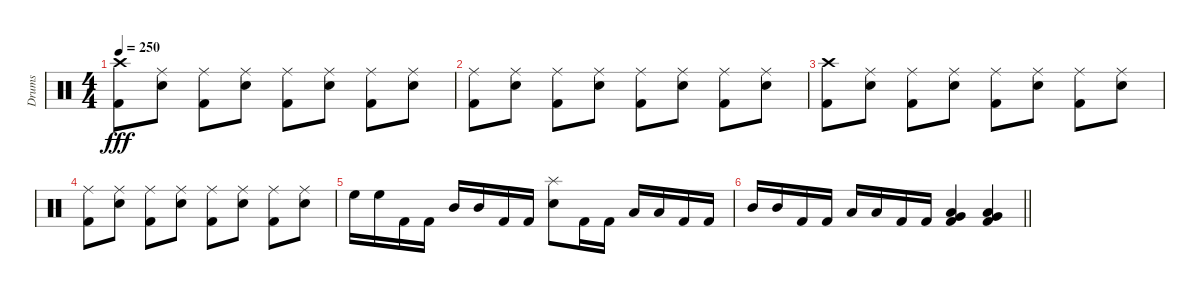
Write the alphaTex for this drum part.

\track ("Drums" "Drums") {solo instrument percussion}
\staff {score}
\articulation defaults
\ts (4 4)
\tempo 250
\clef neutral
\ks c
("Crash high (hit)" "Kick (hit) 2").8{dy fff} ("Ride (middle)" "Snare (hit) 2").8 ("Ride (middle)" "Kick (hit) 2").8 ("Ride (middle)" "Snare (hit) 2").8 ("Ride (middle)" "Kick (hit) 2").8 ("Ride (middle)" "Snare (hit) 2").8 ("Ride (middle)" "Kick (hit) 2").8 ("Ride (middle)" "Snare (hit) 2").8 |
("Ride (middle)" "Kick (hit) 2").8 ("Ride (middle)" "Snare (hit) 2").8 ("Ride (middle)" "Kick (hit) 2").8 ("Ride (middle)" "Snare (hit) 2").8 ("Ride (middle)" "Kick (hit) 2").8 ("Ride (middle)" "Snare (hit) 2").8 ("Ride (middle)" "Kick (hit) 2").8 ("Ride (middle)" "Snare (hit) 2").8 |
("Crash high (hit)" "Kick (hit) 2").8 ("Ride (middle)" "Snare (hit) 2").8 ("Ride (middle)" "Kick (hit) 2").8 ("Ride (middle)" "Snare (hit) 2").8 ("Ride (middle)" "Kick (hit) 2").8 ("Ride (middle)" "Snare (hit) 2").8 ("Ride (middle)" "Kick (hit) 2").8 ("Ride (middle)" "Snare (hit) 2").8 |
("Ride (middle)" "Kick (hit) 2").8 ("Ride (middle)" "Snare (hit) 2").8 ("Ride (middle)" "Kick (hit) 2").8 ("Ride (middle)" "Snare (hit) 2").8 ("Ride (middle)" "Kick (hit) 2").8 ("Ride (middle)" "Snare (hit) 2").8 ("Ride (middle)" "Kick (hit) 2").8 ("Ride (middle)" "Snare (hit) 2").8 |
"High Floor Tom (hit)".16 "High Floor Tom (hit)".16 "Kick (hit) 2".16 "Kick (hit) 2".16 "Mid Tom (hit)".16 "Mid Tom (hit)".16 "Kick (hit) 2".16 "Kick (hit) 2".16 ("Splash (hit)" "Snare (hit) 2").8 "Kick (hit) 2".16 "Kick (hit) 2".16 "Low Tom (hit)".16 "Low Tom (hit)".16 "Kick (hit) 2".16 "Kick (hit) 2".16 |
\barLineRight lightlight "Mid Tom (hit)".16 "Mid Tom (hit)".16 "Kick (hit) 2".16 "Kick (hit) 2".16 "Low Tom (hit)".16 "Low Tom (hit)".16 "Kick (hit) 2".16 "Kick (hit) 2".16
("Very Low Tom (hit)" "Low Floor Tom (hit)" "Kick (hit) 2").4 ("Very Low Tom (hit)" "Low Floor Tom (hit)" "Kick (hit) 2").4
